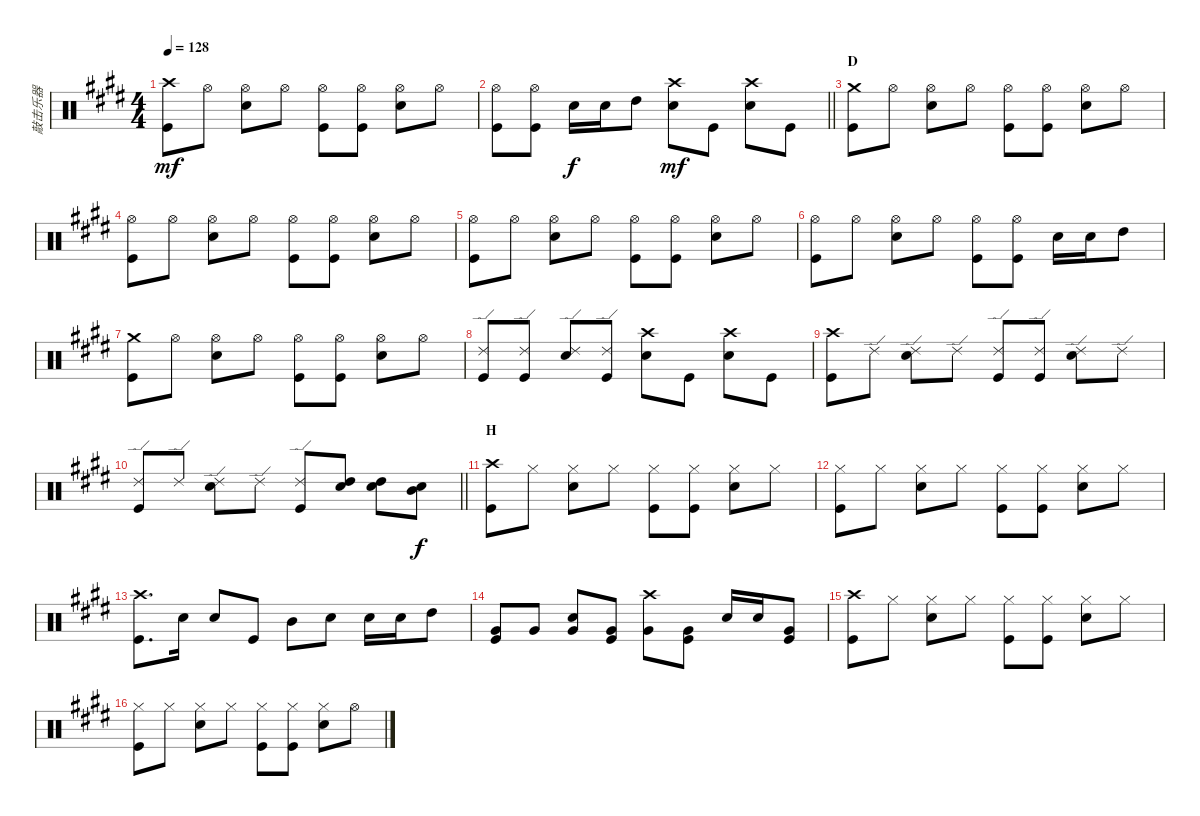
\track ("敲击乐器" "敲击乐器") {instrument percussion}
\staff {score}
\articulation defaults
\ts (4 4)
\tempo 128
\clef neutral
\ks e
("Crash high (hit)" "Kick (hit)").8{dy mf} "Hi-Hat (open)".8 ("Hi-Hat (open)" "Snare (hit) 2").8 "Hi-Hat (open)".8 ("Hi-Hat (open)" "Kick (hit)").8 ("Hi-Hat (open)" "Kick (hit)").8 ("Hi-Hat (open)" "Snare (hit) 2").8 "Hi-Hat (open)".8 |
\barLineRight lightlight
("Hi-Hat (open)" "Kick (hit)").8 ("Hi-Hat (open)" "Kick (hit)").8 "Snare (hit) 2".16{dy f} "Snare (hit) 2".16 "High Tom (hit)".8 ("Crash high (hit)" "Snare (hit) 2").8{dy mf} "Kick (hit)".8 ("Crash high (hit)" "Snare (hit) 2").8 "Kick (hit)".8 |
\section ("" "D")
("Crash medium (hit)" "Kick (hit)").8 "Hi-Hat (open)".8 ("Hi-Hat (open)" "Snare (hit) 2").8 "Hi-Hat (open)".8 ("Hi-Hat (open)" "Kick (hit)").8 ("Hi-Hat (open)" "Kick (hit)").8 ("Hi-Hat (open)" "Snare (hit) 2").8 "Hi-Hat (open)".8 |
("Hi-Hat (open)" "Kick (hit)").8 "Hi-Hat (open)".8 ("Hi-Hat (open)" "Snare (hit) 2").8 "Hi-Hat (open)".8 ("Hi-Hat (open)" "Kick (hit)").8 ("Hi-Hat (open)" "Kick (hit)").8 ("Hi-Hat (open)" "Snare (hit) 2").8 "Hi-Hat (open)".8 |
("Hi-Hat (open)" "Kick (hit)").8 "Hi-Hat (open)".8 ("Hi-Hat (open)" "Snare (hit) 2").8 "Hi-Hat (open)".8 ("Hi-Hat (open)" "Kick (hit)").8 ("Hi-Hat (open)" "Kick (hit)").8 ("Hi-Hat (open)" "Snare (hit) 2").8 "Hi-Hat (open)".8 |
("Hi-Hat (open)" "Kick (hit)").8 "Hi-Hat (open)".8 ("Hi-Hat (open)" "Snare (hit) 2").8 "Hi-Hat (open)".8 ("Hi-Hat (open)" "Kick (hit)").8 ("Hi-Hat (open)" "Kick (hit)").8 "Snare (hit) 2".16 "Snare (hit) 2".16 "High Tom (hit)".8 |
("Crash medium (hit)" "Kick (hit)").8 "Hi-Hat (open)".8 ("Hi-Hat (open)" "Snare (hit) 2").8 "Hi-Hat (open)".8 ("Hi-Hat (open)" "Kick (hit)").8 ("Hi-Hat (open)" "Kick (hit)").8 ("Hi-Hat (open)" "Snare (hit) 2").8 "Hi-Hat (open)".8 |
("Ride (edge) 2" "Kick (hit)").8 ("Ride (edge) 2" "Kick (hit)").8 ("Ride (edge) 2" "Snare (hit) 2").8 ("Ride (edge) 2" "Kick (hit)").8 ("Crash high (hit)" "Snare (hit) 2").8 "Kick (hit)".8 ("Crash high (hit)" "Snare (hit) 2").8 "Kick (hit)".8 |
("Crash high (hit)" "Kick (hit)").8 "Ride (edge) 2".8 ("Ride (edge) 2" "Snare (hit) 2").8 "Ride (edge) 2".8 ("Ride (edge) 2" "Kick (hit)").8 ("Ride (edge) 2" "Kick (hit)").8 ("Ride (edge) 2" "Snare (hit) 2").8 "Ride (edge) 2".8 |
\barLineRight lightlight
("Ride (edge) 2" "Kick (hit)").8 "Ride (edge) 2".8 ("Ride (edge) 2" "Snare (hit) 2").8 "Ride (edge) 2".8 ("Ride (edge) 2" "Kick (hit)").8 ("High Tom (hit)" "Snare (hit) 2").8 ("High Tom (hit)" "Snare (hit) 2").8 ("Mid Tom (hit)" "Snare (hit) 2").8{dy f} |
\section ("" "H")
("Crash high (hit)" "Kick (hit)").8 "Hi-Hat (closed)".8 ("Hi-Hat (closed)" "Snare (hit) 2").8 "Hi-Hat (closed)".8 ("Hi-Hat (closed)" "Kick (hit)").8 ("Hi-Hat (closed)" "Kick (hit)").8 ("Hi-Hat (closed)" "Snare (hit) 2").8 "Hi-Hat (closed)".8 |
("Hi-Hat (closed)" "Kick (hit)").8 "Hi-Hat (closed)".8 ("Hi-Hat (closed)" "Snare (hit) 2").8 "Hi-Hat (closed)".8 ("Hi-Hat (closed)" "Kick (hit)").8 ("Hi-Hat (closed)" "Kick (hit)").8 ("Hi-Hat (closed)" "Snare (hit) 2").8 "Hi-Hat (closed)".8 |
("Crash high (hit)" "Kick (hit)").8{d} "Snare (hit) 2".16 "Snare (hit) 2".8 "Kick (hit)".8 "Mid Tom (hit)".8 "Snare (hit) 2".8 "Snare (hit) 2".16 "Snare (hit) 2".16 "High Tom (hit)".8 |
("Very Low Tom (hit)" "Kick (hit)").8 "Very Low Tom (hit)".8 ("Very Low Tom (hit)" "Snare (hit) 2").8 ("Very Low Tom (hit)" "Kick (hit)").8 ("Very Low Tom (hit)" "Crash high (hit)").8 ("Very Low Tom (hit)" "Kick (hit)").8 "Electric Snare (hit)".16 "Electric Snare (hit)".16 ("Very Low Tom (hit)" "Kick (hit)").8 |
("Crash high (hit)" "Kick (hit)").8 "Hi-Hat (closed)".8 ("Hi-Hat (closed)" "Snare (hit) 2").8 "Hi-Hat (closed)".8 ("Hi-Hat (closed)" "Kick (hit)").8 ("Hi-Hat (closed)" "Kick (hit)").8 ("Hi-Hat (closed)" "Snare (hit) 2").8 "Hi-Hat (closed)".8 |
("Hi-Hat (closed)" "Kick (hit)").8 "Hi-Hat (closed)".8 ("Hi-Hat (closed)" "Snare (hit) 2").8 "Hi-Hat (closed)".8 ("Hi-Hat (closed)" "Kick (hit)").8 ("Hi-Hat (closed)" "Kick (hit)").8 ("Hi-Hat (closed)" "Snare (hit) 2").8 "Hi-Hat (open)".8
